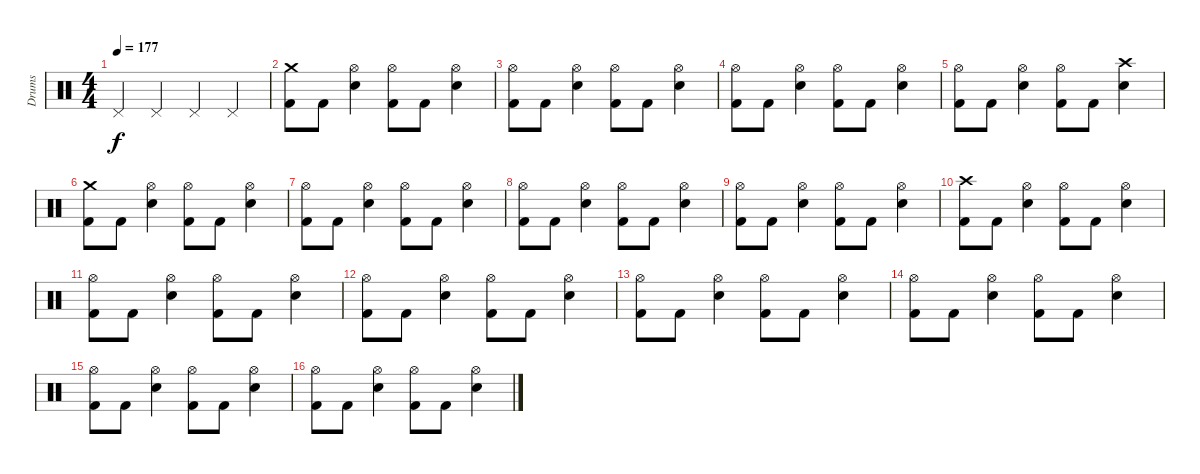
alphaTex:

\track ("Drums" "Drums") {solo instrument percussion}
\staff {score}
\articulation defaults
\ts (4 4)
\tempo 177
\clef neutral
\ks c "Pedal Hi-Hat (hit)".4{dy f} "Pedal Hi-Hat (hit)".4 "Pedal Hi-Hat (hit)".4 "Pedal Hi-Hat (hit)".4
|
("Crash medium (hit)" "Kick (hit) 2").8 "Kick (hit) 2".8 ("Hi-Hat (open)" "Snare (hit) 2").4 ("Hi-Hat (open)" "Kick (hit) 2").8 "Kick (hit) 2".8 ("Hi-Hat (open)" "Snare (hit) 2").4 |
("Hi-Hat (open)" "Kick (hit) 2").8 "Kick (hit) 2".8 ("Hi-Hat (open)" "Snare (hit) 2").4 ("Hi-Hat (open)" "Kick (hit) 2").8 "Kick (hit) 2".8 ("Hi-Hat (open)" "Snare (hit) 2").4 |
("Hi-Hat (open)" "Kick (hit) 2").8 "Kick (hit) 2".8 ("Hi-Hat (open)" "Snare (hit) 2").4 ("Hi-Hat (open)" "Kick (hit) 2").8 "Kick (hit) 2".8 ("Hi-Hat (open)" "Snare (hit) 2").4 |
("Hi-Hat (open)" "Kick (hit) 2").8 "Kick (hit) 2".8 ("Hi-Hat (open)" "Snare (hit) 2").4 ("Hi-Hat (open)" "Kick (hit) 2").8 "Kick (hit) 2".8 ("Crash high (hit)" "Snare (hit) 2").4 |
("Crash medium (hit)" "Kick (hit) 2").8 "Kick (hit) 2".8 ("Hi-Hat (open)" "Snare (hit) 2").4 ("Hi-Hat (open)" "Kick (hit) 2").8 "Kick (hit) 2".8 ("Hi-Hat (open)" "Snare (hit) 2").4 |
("Hi-Hat (open)" "Kick (hit) 2").8 "Kick (hit) 2".8 ("Hi-Hat (open)" "Snare (hit) 2").4 ("Hi-Hat (open)" "Kick (hit) 2").8 "Kick (hit) 2".8 ("Hi-Hat (open)" "Snare (hit) 2").4 |
("Hi-Hat (open)" "Kick (hit) 2").8 "Kick (hit) 2".8 ("Hi-Hat (open)" "Snare (hit) 2").4 ("Hi-Hat (open)" "Kick (hit) 2").8 "Kick (hit) 2".8 ("Hi-Hat (open)" "Snare (hit) 2").4 |
("Hi-Hat (open)" "Kick (hit) 2").8 "Kick (hit) 2".8 ("Hi-Hat (open)" "Snare (hit) 2").4 ("Hi-Hat (open)" "Kick (hit) 2").8 "Kick (hit) 2".8 ("Hi-Hat (open)" "Snare (hit) 2").4 |
("Crash high (hit)" "Kick (hit) 2").8 "Kick (hit) 2".8 ("Hi-Hat (open)" "Snare (hit) 2").4 ("Hi-Hat (open)" "Kick (hit) 2").8 "Kick (hit) 2".8 ("Hi-Hat (open)" "Snare (hit) 2").4 |
("Hi-Hat (open)" "Kick (hit) 2").8 "Kick (hit) 2".8 ("Hi-Hat (open)" "Snare (hit) 2").4 ("Hi-Hat (open)" "Kick (hit) 2").8 "Kick (hit) 2".8 ("Hi-Hat (open)" "Snare (hit) 2").4 |
("Hi-Hat (open)" "Kick (hit) 2").8 "Kick (hit) 2".8 ("Hi-Hat (open)" "Snare (hit) 2").4 ("Hi-Hat (open)" "Kick (hit) 2").8 "Kick (hit) 2".8 ("Hi-Hat (open)" "Snare (hit) 2").4 |
("Hi-Hat (open)" "Kick (hit) 2").8 "Kick (hit) 2".8 ("Hi-Hat (open)" "Snare (hit) 2").4 ("Hi-Hat (open)" "Kick (hit) 2").8 "Kick (hit) 2".8 ("Hi-Hat (open)" "Snare (hit) 2").4 |
("Hi-Hat (open)" "Kick (hit) 2").8 "Kick (hit) 2".8 ("Hi-Hat (open)" "Snare (hit) 2").4 ("Hi-Hat (open)" "Kick (hit) 2").8 "Kick (hit) 2".8 ("Hi-Hat (open)" "Snare (hit) 2").4 |
("Hi-Hat (open)" "Kick (hit) 2").8 "Kick (hit) 2".8 ("Hi-Hat (open)" "Snare (hit) 2").4 ("Hi-Hat (open)" "Kick (hit) 2").8 "Kick (hit) 2".8 ("Hi-Hat (open)" "Snare (hit) 2").4 |
("Hi-Hat (open)" "Kick (hit) 2").8 "Kick (hit) 2".8 ("Hi-Hat (open)" "Snare (hit) 2").4 ("Hi-Hat (open)" "Kick (hit) 2").8 "Kick (hit) 2".8 ("Hi-Hat (open)" "Snare (hit) 2").4
